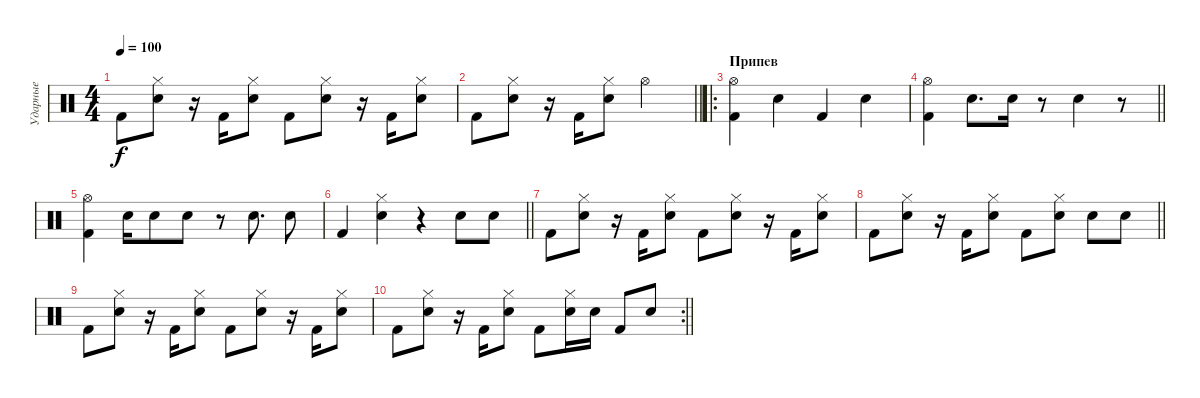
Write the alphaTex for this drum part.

\track ("Ударные" "Ударные") {instrument percussion}
\staff {score}
\articulation defaults
\ts (4 4)
\tempo 100
\clef neutral
\ks c "Kick (hit) 2".8{dy f}
("Hi-Hat (closed)" "Snare (hit) 2").8 r.16 "Kick (hit) 2".16 ("Hi-Hat (closed)" "Snare (hit) 2").8 "Kick (hit) 2".8 ("Hi-Hat (closed)" "Snare (hit) 2").8 r.16 "Kick (hit) 2".16 ("Hi-Hat (closed)" "Snare (hit) 2").8 |
\barLineRight lightlight "Kick (hit) 2".8
("Hi-Hat (closed)" "Snare (hit) 2").8 r.16 "Kick (hit) 2".16 ("Hi-Hat (closed)" "Snare (hit) 2").8 "Hi-Hat (open)".2 |
\ro
\section ("" "Припев")
("Hi-Hat (open)" "Kick (hit) 2").4 "Snare (hit) 2".4 "Kick (hit) 2".4 "Snare (hit) 2".4 |
\barLineRight lightlight
("Hi-Hat (open)" "Kick (hit) 2").4 "Snare (hit) 2".8{d} "Snare (hit) 2".16 r.8 "Snare (hit) 2".4 r.8 |
("Hi-Hat (open)" "Kick (hit) 2").4 "Snare (hit) 2".16 "Snare (hit) 2".8 "Snare (hit) 2".8 r.8 "Snare (hit) 2".8{d} "Snare (hit) 2".8 |
\barLineRight lightlight "Kick (hit) 2".4
("Hi-Hat (closed)" "Snare (hit) 2").4 r.4 "Snare (hit) 2".8 "Snare (hit) 2".8 |
"Kick (hit) 2".8 ("Hi-Hat (closed)" "Snare (hit) 2").8 r.16 "Kick (hit) 2".16 ("Hi-Hat (closed)" "Snare (hit) 2").8 "Kick (hit) 2".8 ("Hi-Hat (closed)" "Snare (hit) 2").8 r.16 "Kick (hit) 2".16 ("Hi-Hat (closed)" "Snare (hit) 2").8 |
\barLineRight lightlight "Kick (hit) 2".8
("Hi-Hat (closed)" "Snare (hit) 2").8 r.16 "Kick (hit) 2".16 ("Hi-Hat (closed)" "Snare (hit) 2").8 "Kick (hit) 2".8 ("Hi-Hat (closed)" "Snare (hit) 2").8 "Snare (hit) 2".8 "Snare (hit) 2".8 |
"Kick (hit) 2".8 ("Hi-Hat (closed)" "Snare (hit) 2").8 r.16 "Kick (hit) 2".16 ("Hi-Hat (closed)" "Snare (hit) 2").8 "Kick (hit) 2".8 ("Hi-Hat (closed)" "Snare (hit) 2").8 r.16 "Kick (hit) 2".16 ("Hi-Hat (closed)" "Snare (hit) 2").8 |
\rc 2
\barLineRight lightlight "Kick (hit) 2".8
("Hi-Hat (closed)" "Snare (hit) 2").8 r.16 "Kick (hit) 2".16 ("Hi-Hat (closed)" "Snare (hit) 2").8 "Kick (hit) 2".8 ("Hi-Hat (closed)" "Snare (hit) 2").16 "Snare (hit) 2".16 "Kick (hit) 2".8 "Snare (hit) 2".8
